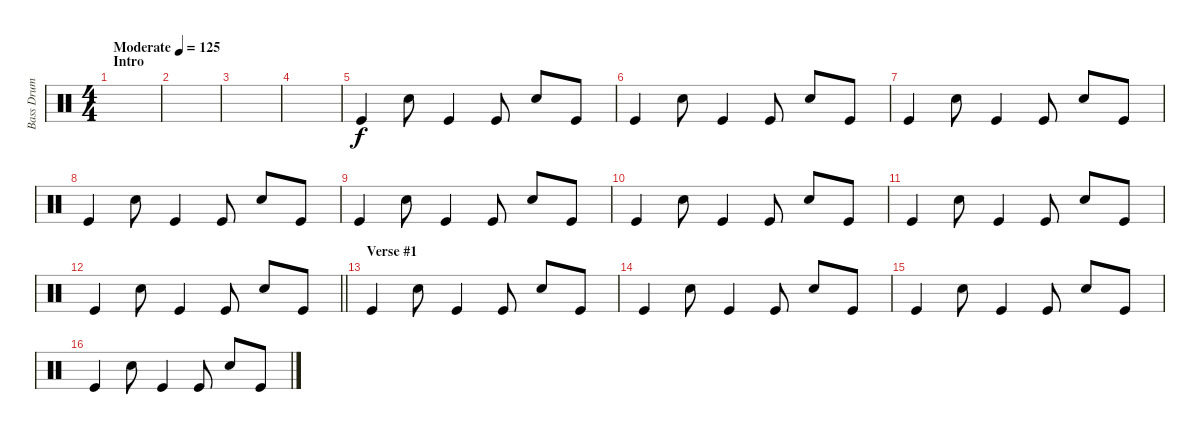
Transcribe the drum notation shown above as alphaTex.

\track ("Bass Drum and Clap" "Bass Drum ") {instrument percussion}
\staff {score}
\articulation defaults
\ts (4 4)
\section ("" "Intro")
\tempo (125 "Moderate")
\clef neutral
\ks c
|
|
|
|
"Kick (hit)".4 "Hand Clap (hit)".8 "Kick (hit)".4 "Kick (hit)".8 "Hand Clap (hit)".8 "Kick (hit)".8 |
"Kick (hit)".4 "Hand Clap (hit)".8 "Kick (hit)".4 "Kick (hit)".8 "Hand Clap (hit)".8 "Kick (hit)".8 |
"Kick (hit)".4 "Hand Clap (hit)".8 "Kick (hit)".4 "Kick (hit)".8 "Hand Clap (hit)".8 "Kick (hit)".8 |
"Kick (hit)".4 "Hand Clap (hit)".8 "Kick (hit)".4 "Kick (hit)".8 "Hand Clap (hit)".8 "Kick (hit)".8 |
"Kick (hit)".4 "Hand Clap (hit)".8 "Kick (hit)".4 "Kick (hit)".8 "Hand Clap (hit)".8 "Kick (hit)".8 |
"Kick (hit)".4 "Hand Clap (hit)".8 "Kick (hit)".4 "Kick (hit)".8 "Hand Clap (hit)".8 "Kick (hit)".8 |
"Kick (hit)".4 "Hand Clap (hit)".8 "Kick (hit)".4 "Kick (hit)".8 "Hand Clap (hit)".8 "Kick (hit)".8 |
\barLineRight lightlight "Kick (hit)".4 "Hand Clap (hit)".8 "Kick (hit)".4 "Kick (hit)".8 "Hand Clap (hit)".8 "Kick (hit)".8
|
\section ("" "Verse #1")
"Kick (hit)".4 "Hand Clap (hit)".8 "Kick (hit)".4 "Kick (hit)".8 "Hand Clap (hit)".8 "Kick (hit)".8 |
"Kick (hit)".4 "Hand Clap (hit)".8 "Kick (hit)".4 "Kick (hit)".8 "Hand Clap (hit)".8 "Kick (hit)".8 |
"Kick (hit)".4 "Hand Clap (hit)".8 "Kick (hit)".4 "Kick (hit)".8 "Hand Clap (hit)".8 "Kick (hit)".8 |
"Kick (hit)".4 "Hand Clap (hit)".8 "Kick (hit)".4 "Kick (hit)".8 "Hand Clap (hit)".8 "Kick (hit)".8
